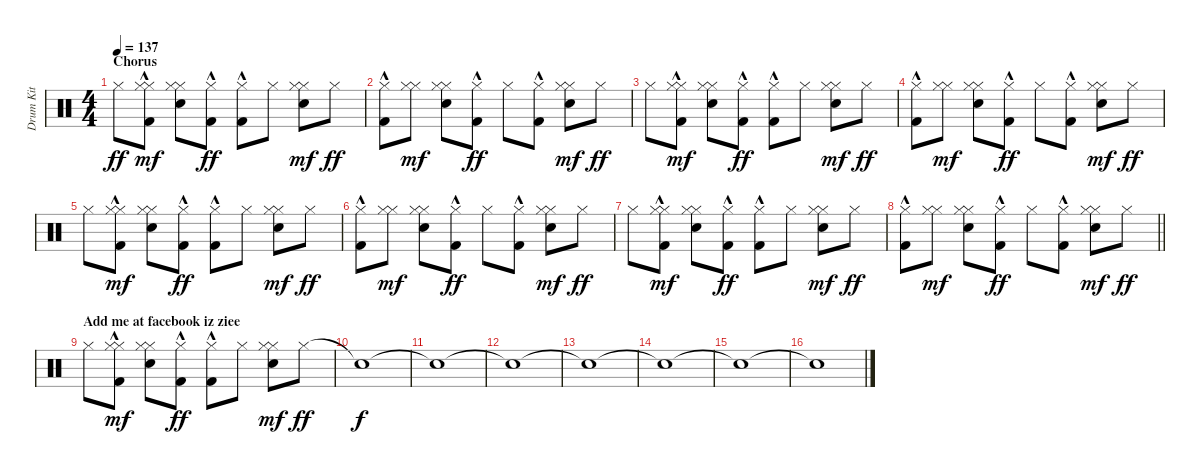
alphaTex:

\track ("Drum Kit" "Drum Kit") {instrument percussion}
\staff {score}
\articulation defaults
\ts (4 4)
\section ("" "Chorus")
\tempo 137
\clef neutral
\ks c "Hi-Hat (closed)".8{dy ff}
("Kick (hit) 2"{hac} "Hi-Hat (closed)" "Hi-Hat (closed)").8{dy mf} ("Hand Clap (hit)" "Hi-Hat (closed)" "Hi-Hat (closed)").8 ("Kick (hit) 2"{hac} "Hi-Hat (closed)").8{dy ff} ("Kick (hit) 2"{hac} "Hi-Hat (closed)").8 "Hi-Hat (closed)".8 ("Hand Clap (hit)" "Hi-Hat (closed)" "Hi-Hat (closed)").8{dy mf} "Hi-Hat (closed)".8{dy ff} |
("Kick (hit) 2"{hac} "Hi-Hat (closed)").8 ("Hi-Hat (closed)" "Hi-Hat (closed)").8{dy mf} ("Hand Clap (hit)" "Hi-Hat (closed)" "Hi-Hat (closed)").8 ("Kick (hit) 2"{hac} "Hi-Hat (closed)").8{dy ff} "Hi-Hat (closed)".8 ("Kick (hit) 2"{hac} "Hi-Hat (closed)").8 ("Hand Clap (hit)" "Hi-Hat (closed)" "Hi-Hat (closed)").8{dy mf} "Hi-Hat (closed)".8{dy ff} |
"Hi-Hat (closed)".8 ("Kick (hit) 2"{hac} "Hi-Hat (closed)" "Hi-Hat (closed)").8{dy mf} ("Hand Clap (hit)" "Hi-Hat (closed)" "Hi-Hat (closed)").8 ("Kick (hit) 2"{hac} "Hi-Hat (closed)").8{dy ff} ("Kick (hit) 2"{hac} "Hi-Hat (closed)").8 "Hi-Hat (closed)".8 ("Hand Clap (hit)" "Hi-Hat (closed)" "Hi-Hat (closed)").8{dy mf} "Hi-Hat (closed)".8{dy ff} |
("Kick (hit) 2"{hac} "Hi-Hat (closed)").8 ("Hi-Hat (closed)" "Hi-Hat (closed)").8{dy mf} ("Hand Clap (hit)" "Hi-Hat (closed)" "Hi-Hat (closed)").8 ("Kick (hit) 2"{hac} "Hi-Hat (closed)").8{dy ff} "Hi-Hat (closed)".8 ("Kick (hit) 2"{hac} "Hi-Hat (closed)").8 ("Hand Clap (hit)" "Hi-Hat (closed)" "Hi-Hat (closed)").8{dy mf} "Hi-Hat (closed)".8{dy ff} |
"Hi-Hat (closed)".8 ("Kick (hit) 2"{hac} "Hi-Hat (closed)" "Hi-Hat (closed)").8{dy mf} ("Hand Clap (hit)" "Hi-Hat (closed)" "Hi-Hat (closed)").8 ("Kick (hit) 2"{hac} "Hi-Hat (closed)").8{dy ff} ("Kick (hit) 2"{hac} "Hi-Hat (closed)").8 "Hi-Hat (closed)".8 ("Hand Clap (hit)" "Hi-Hat (closed)" "Hi-Hat (closed)").8{dy mf} "Hi-Hat (closed)".8{dy ff} |
("Kick (hit) 2"{hac} "Hi-Hat (closed)").8 ("Hi-Hat (closed)" "Hi-Hat (closed)").8{dy mf} ("Hand Clap (hit)" "Hi-Hat (closed)" "Hi-Hat (closed)").8 ("Kick (hit) 2"{hac} "Hi-Hat (closed)").8{dy ff} "Hi-Hat (closed)".8 ("Kick (hit) 2"{hac} "Hi-Hat (closed)").8 ("Hand Clap (hit)" "Hi-Hat (closed)" "Hi-Hat (closed)").8{dy mf} "Hi-Hat (closed)".8{dy ff} |
"Hi-Hat (closed)".8 ("Kick (hit) 2"{hac} "Hi-Hat (closed)" "Hi-Hat (closed)").8{dy mf} ("Hand Clap (hit)" "Hi-Hat (closed)" "Hi-Hat (closed)").8 ("Kick (hit) 2"{hac} "Hi-Hat (closed)").8{dy ff} ("Kick (hit) 2"{hac} "Hi-Hat (closed)").8 "Hi-Hat (closed)".8 ("Hand Clap (hit)" "Hi-Hat (closed)" "Hi-Hat (closed)").8{dy mf} "Hi-Hat (closed)".8{dy ff} |
\barLineRight lightlight
("Kick (hit) 2"{hac} "Hi-Hat (closed)").8 ("Hi-Hat (closed)" "Hi-Hat (closed)").8{dy mf} ("Hand Clap (hit)" "Hi-Hat (closed)" "Hi-Hat (closed)").8 ("Kick (hit) 2"{hac} "Hi-Hat (closed)").8{dy ff} "Hi-Hat (closed)".8 ("Kick (hit) 2"{hac} "Hi-Hat (closed)").8 ("Hand Clap (hit)" "Hi-Hat (closed)" "Hi-Hat (closed)").8{dy mf} "Hi-Hat (closed)".8{dy ff} |
\section ("" "Add me at facebook iz ziee")
"Hi-Hat (closed)".8 ("Kick (hit) 2"{hac} "Hi-Hat (closed)" "Hi-Hat (closed)").8{dy mf} ("Hand Clap (hit)" "Hi-Hat (closed)" "Hi-Hat (closed)").8 ("Kick (hit) 2"{hac} "Hi-Hat (closed)").8{dy ff} ("Kick (hit) 2"{hac} "Hi-Hat (closed)").8 "Hi-Hat (closed)".8 ("Hand Clap (hit)" "Hi-Hat (closed)" "Hi-Hat (closed)").8{dy mf} "Hi-Hat (closed)".8{dy ff} |
"Snare (hit)"{t}.1{dy f} |
"Snare (hit)"{t}.1 |
"Snare (hit)"{t}.1 |
"Snare (hit)"{t}.1 |
"Snare (hit)"{t}.1 |
"Snare (hit)"{t}.1 |
"Snare (hit)"{t}.1
